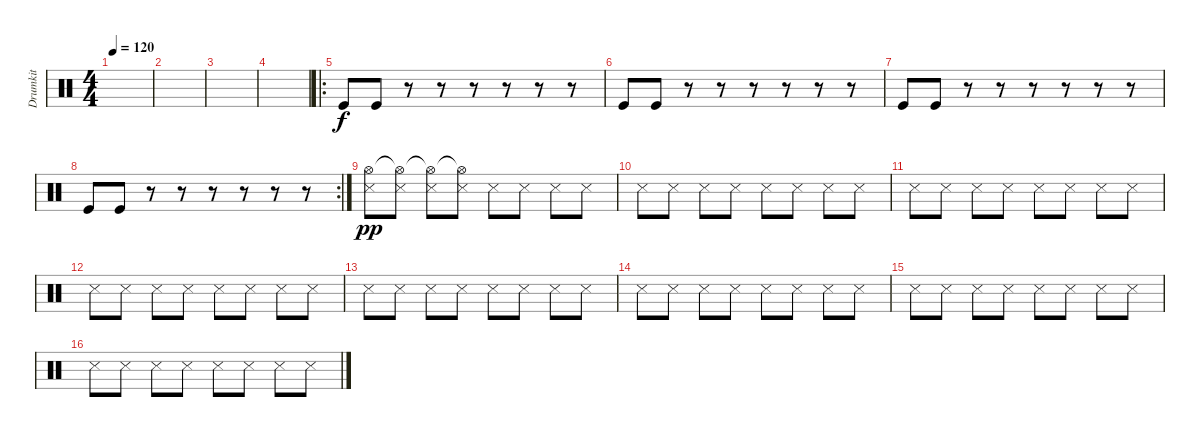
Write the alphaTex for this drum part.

\track ("Drumkit" "Drumkit") {instrument percussion}
\staff {score}
\articulation defaults
\ts (4 4)
\tempo 120
\clef neutral
\ks c
|
|
|
|
\ro "Kick (hit)".8 "Kick (hit)".8
r.8 r.8 r.8 r.8 r.8 r.8 |
"Kick (hit)".8 "Kick (hit)".8 r.8 r.8 r.8 r.8 r.8 r.8 |
"Kick (hit)".8 "Kick (hit)".8 r.8 r.8 r.8 r.8 r.8 r.8 |
\rc 2 "Kick (hit)".8 "Kick (hit)".8
r.8 r.8 r.8 r.8 r.8 r.8 |
("Snare (side stick) 3" "Hi-Hat (open)").8{dy pp} ("Snare (side stick) 3" "Hi-Hat (open)"{t}).8 ("Snare (side stick) 3" "Hi-Hat (open)"{t}).8 ("Snare (side stick) 3" "Hi-Hat (open)"{t}).8 "Snare (side stick) 3".8 "Snare (side stick) 3".8 "Snare (side stick) 3".8 "Snare (side stick) 3".8 |
"Snare (side stick) 3".8 "Snare (side stick) 3".8 "Snare (side stick) 3".8 "Snare (side stick) 3".8 "Snare (side stick) 3".8 "Snare (side stick) 3".8 "Snare (side stick) 3".8 "Snare (side stick) 3".8 |
"Snare (side stick) 3".8 "Snare (side stick) 3".8 "Snare (side stick) 3".8 "Snare (side stick) 3".8 "Snare (side stick) 3".8 "Snare (side stick) 3".8 "Snare (side stick) 3".8 "Snare (side stick) 3".8 |
"Snare (side stick) 3".8 "Snare (side stick) 3".8 "Snare (side stick) 3".8 "Snare (side stick) 3".8 "Snare (side stick) 3".8 "Snare (side stick) 3".8 "Snare (side stick) 3".8 "Snare (side stick) 3".8 |
"Snare (side stick) 3".8 "Snare (side stick) 3".8 "Snare (side stick) 3".8 "Snare (side stick) 3".8 "Snare (side stick) 3".8 "Snare (side stick) 3".8 "Snare (side stick) 3".8 "Snare (side stick) 3".8 |
"Snare (side stick) 3".8 "Snare (side stick) 3".8 "Snare (side stick) 3".8 "Snare (side stick) 3".8 "Snare (side stick) 3".8 "Snare (side stick) 3".8 "Snare (side stick) 3".8 "Snare (side stick) 3".8 |
"Snare (side stick) 3".8 "Snare (side stick) 3".8 "Snare (side stick) 3".8 "Snare (side stick) 3".8 "Snare (side stick) 3".8 "Snare (side stick) 3".8 "Snare (side stick) 3".8 "Snare (side stick) 3".8 |
"Snare (side stick) 3".8 "Snare (side stick) 3".8 "Snare (side stick) 3".8 "Snare (side stick) 3".8 "Snare (side stick) 3".8 "Snare (side stick) 3".8 "Snare (side stick) 3".8 "Snare (side stick) 3".8
